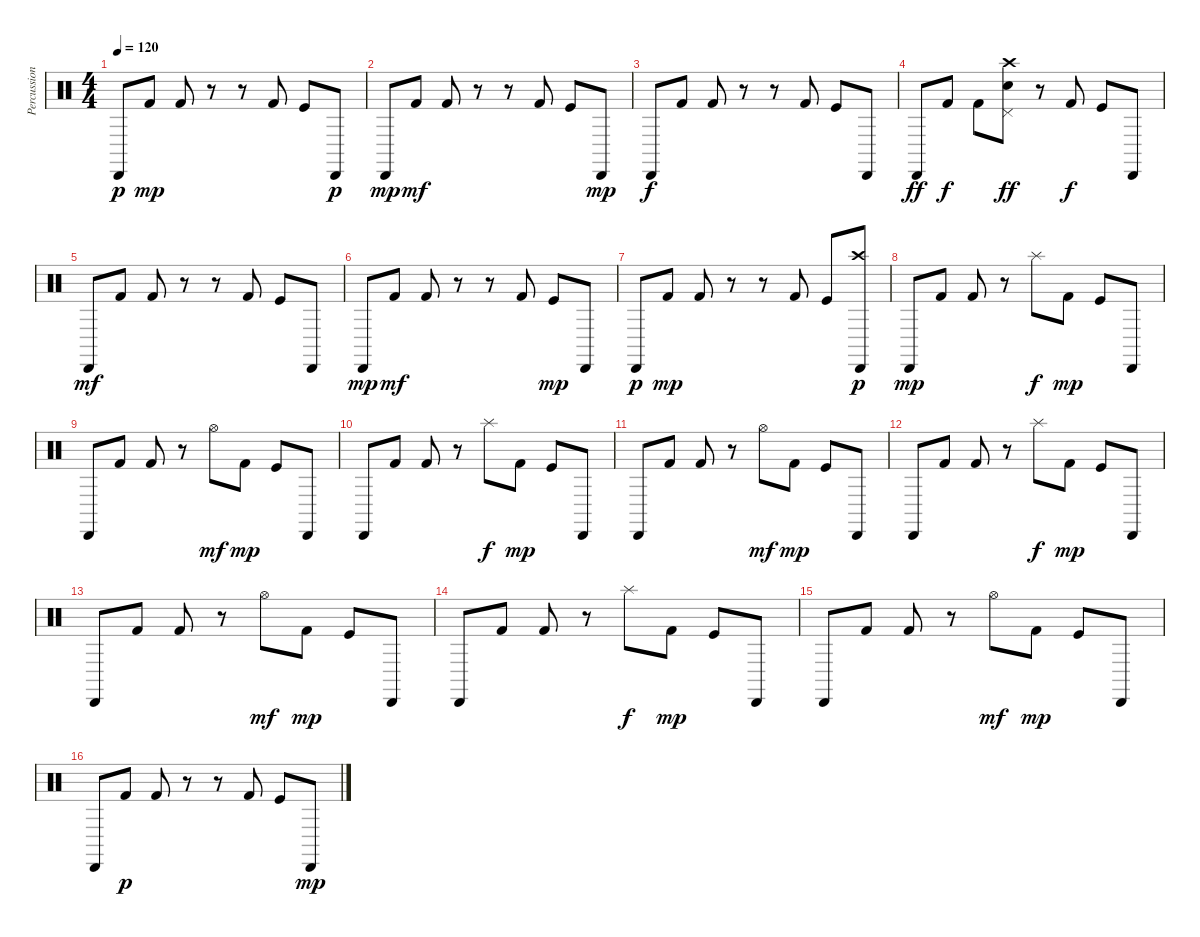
\track ("Percussions" "Percussion") {instrument percussion}
\staff {score}
\articulation defaults
\ts (4 4)
\tempo 120
\clef neutral
\ks c "Cabasa (hit)".8{dy p} "Kick (hit) 2".8{dy mp} "Kick (hit) 2".8
r.8 r.8 "Kick (hit) 2".8 "Kick (hit)".8 "Cabasa (hit)".8{dy p} |
"Cabasa (hit)".8{dy mp} "Kick (hit) 2".8{dy mf} "Kick (hit) 2".8 r.8 r.8 "Kick (hit) 2".8 "Kick (hit)".8 "Cabasa (hit)".8{dy mp} |
"Cabasa (hit)".8{dy f} "Kick (hit) 2".8 "Kick (hit) 2".8 r.8 r.8 "Kick (hit) 2".8 "Kick (hit)".8 "Cabasa (hit)".8 |
"Cabasa (hit)".8{dy ff} "Kick (hit) 2".8{dy f} "Kick (hit) 2".8 ("Crash high (hit)" "Electric Snare (hit)" "Pedal Hi-Hat (hit)").8{dy ff} r.8 "Kick (hit) 2".8{dy f} "Kick (hit)".8 "Cabasa (hit)".8 |
"Cabasa (hit)".8{dy mf} "Kick (hit) 2".8 "Kick (hit) 2".8 r.8 r.8 "Kick (hit) 2".8 "Kick (hit)".8 "Cabasa (hit)".8 |
"Cabasa (hit)".8{dy mp} "Kick (hit) 2".8{dy mf} "Kick (hit) 2".8 r.8 r.8 "Kick (hit) 2".8 "Kick (hit)".8{dy mp} "Cabasa (hit)".8 |
"Cabasa (hit)".8{dy p} "Kick (hit) 2".8{dy mp} "Kick (hit) 2".8 r.8 r.8 "Kick (hit) 2".8 "Kick (hit)".8 ("Crash high (hit)" "Cabasa (hit)").8{dy p} |
"Cabasa (hit)".8{dy mp} "Kick (hit) 2".8 "Kick (hit) 2".8 r.8 "Splash (hit)".8{dy f} "Kick (hit) 2".8{dy mp} "Kick (hit)".8 "Cabasa (hit)".8 |
"Cabasa (hit)".8 "Kick (hit) 2".8 "Kick (hit) 2".8 r.8 "Hi-Hat (open)".8{dy mf} "Kick (hit) 2".8{dy mp} "Kick (hit)".8 "Cabasa (hit)".8 |
"Cabasa (hit)".8 "Kick (hit) 2".8 "Kick (hit) 2".8 r.8 "Splash (hit)".8{dy f} "Kick (hit) 2".8{dy mp} "Kick (hit)".8 "Cabasa (hit)".8 |
"Cabasa (hit)".8 "Kick (hit) 2".8 "Kick (hit) 2".8 r.8 "Hi-Hat (open)".8{dy mf} "Kick (hit) 2".8{dy mp} "Kick (hit)".8 "Cabasa (hit)".8 |
"Cabasa (hit)".8 "Kick (hit) 2".8 "Kick (hit) 2".8 r.8 "Splash (hit)".8{dy f} "Kick (hit) 2".8{dy mp} "Kick (hit)".8 "Cabasa (hit)".8 |
"Cabasa (hit)".8 "Kick (hit) 2".8 "Kick (hit) 2".8 r.8 "Hi-Hat (open)".8{dy mf} "Kick (hit) 2".8{dy mp} "Kick (hit)".8 "Cabasa (hit)".8 |
"Cabasa (hit)".8 "Kick (hit) 2".8 "Kick (hit) 2".8 r.8 "Splash (hit)".8{dy f} "Kick (hit) 2".8{dy mp} "Kick (hit)".8 "Cabasa (hit)".8 |
"Cabasa (hit)".8 "Kick (hit) 2".8 "Kick (hit) 2".8 r.8 "Hi-Hat (open)".8{dy mf} "Kick (hit) 2".8{dy mp} "Kick (hit)".8 "Cabasa (hit)".8 |
"Cabasa (hit)".8 "Kick (hit) 2".8{dy p} "Kick (hit) 2".8 r.8 r.8 "Kick (hit) 2".8 "Kick (hit)".8 "Cabasa (hit)".8{dy mp}
